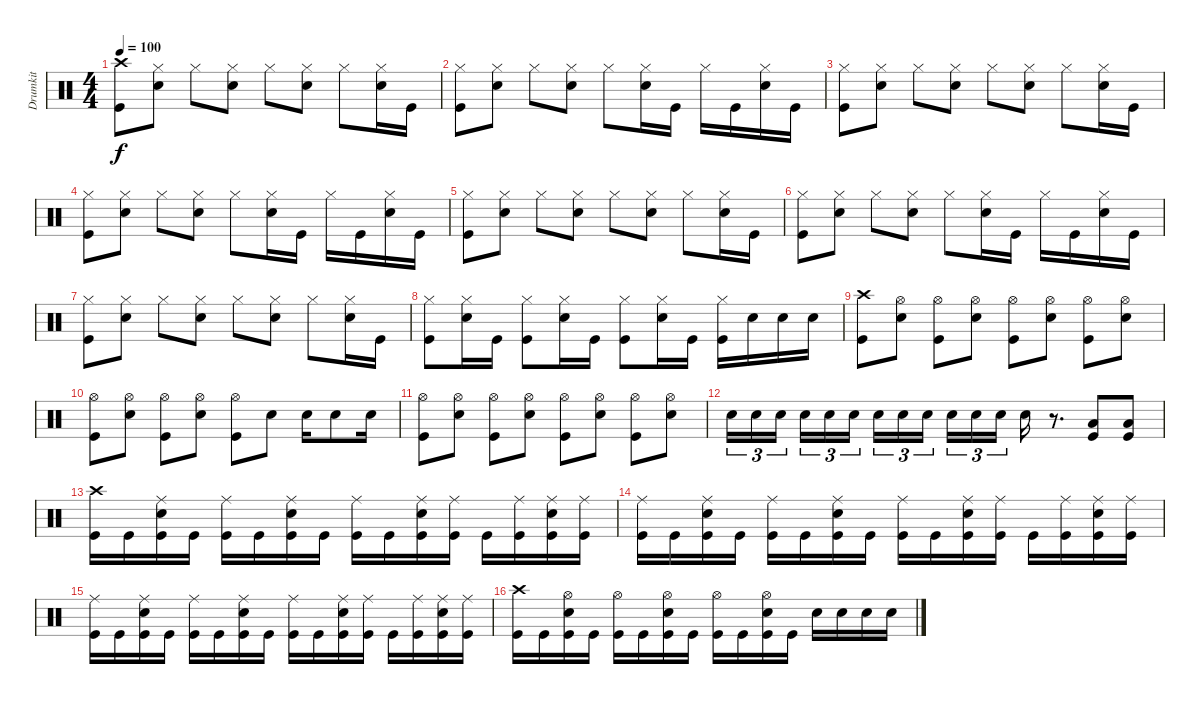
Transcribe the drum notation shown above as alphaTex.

\track ("Drumkit" "Drumkit") {instrument percussion}
\staff {score}
\articulation defaults
\ts (4 4)
\tempo 100
\clef neutral
\ks c
("Crash high (hit)" "Kick (hit)").8{dy f} ("Hi-Hat (closed)" "Snare (hit) 2").8 "Hi-Hat (closed)".8 ("Hi-Hat (closed)" "Snare (hit) 2").8 "Hi-Hat (closed)".8 ("Hi-Hat (closed)" "Snare (hit) 2").8 "Hi-Hat (closed)".8 ("Hi-Hat (closed)" "Snare (hit) 2").16 "Kick (hit)".16 |
("Hi-Hat (closed)" "Kick (hit)").8 ("Hi-Hat (closed)" "Snare (hit) 2").8 "Hi-Hat (closed)".8 ("Hi-Hat (closed)" "Snare (hit) 2").8 "Hi-Hat (closed)".8 ("Hi-Hat (closed)" "Snare (hit) 2").16 "Kick (hit)".16 "Hi-Hat (closed)".16 "Kick (hit)".16 ("Hi-Hat (closed)" "Snare (hit) 2").16 "Kick (hit)".16 |
("Hi-Hat (closed)" "Kick (hit)").8 ("Hi-Hat (closed)" "Snare (hit) 2").8 "Hi-Hat (closed)".8 ("Hi-Hat (closed)" "Snare (hit) 2").8 "Hi-Hat (closed)".8 ("Hi-Hat (closed)" "Snare (hit) 2").8 "Hi-Hat (closed)".8 ("Hi-Hat (closed)" "Snare (hit) 2").16 "Kick (hit)".16 |
("Hi-Hat (closed)" "Kick (hit)").8 ("Hi-Hat (closed)" "Snare (hit) 2").8 "Hi-Hat (closed)".8 ("Hi-Hat (closed)" "Snare (hit) 2").8 "Hi-Hat (closed)".8 ("Hi-Hat (closed)" "Snare (hit) 2").16 "Kick (hit)".16 "Hi-Hat (closed)".16 "Kick (hit)".16 ("Hi-Hat (closed)" "Snare (hit) 2").16 "Kick (hit)".16 |
("Hi-Hat (closed)" "Kick (hit)").8 ("Hi-Hat (closed)" "Snare (hit) 2").8 "Hi-Hat (closed)".8 ("Hi-Hat (closed)" "Snare (hit) 2").8 "Hi-Hat (closed)".8 ("Hi-Hat (closed)" "Snare (hit) 2").8 "Hi-Hat (closed)".8 ("Hi-Hat (closed)" "Snare (hit) 2").16 "Kick (hit)".16 |
("Hi-Hat (closed)" "Kick (hit)").8 ("Hi-Hat (closed)" "Snare (hit) 2").8 "Hi-Hat (closed)".8 ("Hi-Hat (closed)" "Snare (hit) 2").8 "Hi-Hat (closed)".8 ("Hi-Hat (closed)" "Snare (hit) 2").16 "Kick (hit)".16 "Hi-Hat (closed)".16 "Kick (hit)".16 ("Hi-Hat (closed)" "Snare (hit) 2").16 "Kick (hit)".16 |
("Hi-Hat (closed)" "Kick (hit)").8 ("Hi-Hat (closed)" "Snare (hit) 2").8 "Hi-Hat (closed)".8 ("Hi-Hat (closed)" "Snare (hit) 2").8 "Hi-Hat (closed)".8 ("Hi-Hat (closed)" "Snare (hit) 2").8 "Hi-Hat (closed)".8 ("Hi-Hat (closed)" "Snare (hit) 2").16 "Kick (hit)".16 |
("Hi-Hat (closed)" "Kick (hit)").8 ("Hi-Hat (closed)" "Snare (hit) 2").16 "Kick (hit)".16 ("Hi-Hat (closed)" "Kick (hit)").8 ("Hi-Hat (closed)" "Snare (hit) 2").16 "Kick (hit)".16 ("Hi-Hat (closed)" "Kick (hit)").8 ("Hi-Hat (closed)" "Snare (hit) 2").16 "Kick (hit)".16 ("Hi-Hat (closed)" "Kick (hit)").16 "Snare (hit) 2".16 "Snare (hit) 2".16 "Snare (hit) 2".16 |
("Crash high (hit)" "Kick (hit)").8 ("Hi-Hat (open)" "Snare (hit) 2").8 ("Hi-Hat (open)" "Kick (hit)").8 ("Hi-Hat (open)" "Snare (hit) 2").8 ("Hi-Hat (open)" "Kick (hit)").8 ("Hi-Hat (open)" "Snare (hit) 2").8 ("Hi-Hat (open)" "Kick (hit)").8 ("Hi-Hat (open)" "Snare (hit) 2").8 |
("Hi-Hat (open)" "Kick (hit)").8 ("Hi-Hat (open)" "Snare (hit) 2").8 ("Hi-Hat (open)" "Kick (hit)").8 ("Hi-Hat (open)" "Snare (hit) 2").8 ("Hi-Hat (open)" "Kick (hit)").8 "Snare (hit) 2".8 "Snare (hit) 2".16 "Snare (hit) 2".8 "Snare (hit) 2".16 |
("Hi-Hat (open)" "Kick (hit)").8 ("Hi-Hat (open)" "Snare (hit) 2").8 ("Hi-Hat (open)" "Kick (hit)").8 ("Hi-Hat (open)" "Snare (hit) 2").8 ("Hi-Hat (open)" "Kick (hit)").8 ("Hi-Hat (open)" "Snare (hit) 2").8 ("Hi-Hat (open)" "Kick (hit)").8 ("Hi-Hat (open)" "Snare (hit) 2").8 |
"Snare (hit) 2".16{tu (3 2)} "Snare (hit) 2".16{tu (3 2)} "Snare (hit) 2".16{tu (3 2)} "Snare (hit) 2".16{tu (3 2)} "Snare (hit) 2".16{tu (3 2)} "Snare (hit) 2".16{tu (3 2)} "Snare (hit) 2".16{tu (3 2)} "Snare (hit) 2".16{tu (3 2)} "Snare (hit) 2".16{tu (3 2)} "Snare (hit) 2".16{tu (3 2)} "Snare (hit) 2".16{tu (3 2)} "Snare (hit) 2".16{tu (3 2)} "Snare (hit) 2".16 r.8{d} ("Low Tom (hit)" "Kick (hit)").8 ("Low Floor Tom (hit)" "Kick (hit)").8 |
("Crash high (hit)" "Kick (hit)").16 "Kick (hit)".16 ("Ride (middle)" "Snare (hit) 2" "Kick (hit)").16 "Kick (hit)".16 ("Ride (middle)" "Kick (hit)").16 "Kick (hit)".16 ("Ride (middle)" "Snare (hit) 2" "Kick (hit)").16 "Kick (hit)".16 ("Ride (middle)" "Kick (hit)").16 "Kick (hit)".16 ("Ride (middle)" "Snare (hit) 2" "Kick (hit)").16 ("Ride (middle)" "Kick (hit)").16 "Kick (hit)".16 ("Ride (middle)" "Kick (hit)").16 ("Ride (middle)" "Snare (hit) 2" "Kick (hit)").16 ("Ride (middle)" "Kick (hit)").16 |
("Ride (middle)" "Kick (hit)").16 "Kick (hit)".16 ("Ride (middle)" "Snare (hit) 2" "Kick (hit)").16 "Kick (hit)".16 ("Ride (middle)" "Kick (hit)").16 "Kick (hit)".16 ("Ride (middle)" "Snare (hit) 2" "Kick (hit)").16 "Kick (hit)".16 ("Ride (middle)" "Kick (hit)").16 "Kick (hit)".16 ("Ride (middle)" "Snare (hit) 2" "Kick (hit)").16 ("Ride (middle)" "Kick (hit)").16 "Kick (hit)".16 ("Ride (middle)" "Kick (hit)").16 ("Ride (middle)" "Snare (hit) 2" "Kick (hit)").16 ("Ride (middle)" "Kick (hit)").16 |
("Ride (middle)" "Kick (hit)").16 "Kick (hit)".16 ("Ride (middle)" "Snare (hit) 2" "Kick (hit)").16 "Kick (hit)".16 ("Ride (middle)" "Kick (hit)").16 "Kick (hit)".16 ("Ride (middle)" "Snare (hit) 2" "Kick (hit)").16 "Kick (hit)".16 ("Ride (middle)" "Kick (hit)").16 "Kick (hit)".16 ("Ride (middle)" "Snare (hit) 2" "Kick (hit)").16 ("Ride (middle)" "Kick (hit)").16 "Kick (hit)".16 ("Ride (middle)" "Kick (hit)").16 ("Ride (middle)" "Snare (hit) 2" "Kick (hit)").16 ("Ride (middle)" "Kick (hit)").16 |
("Crash high (hit)" "Kick (hit)").16 "Kick (hit)".16 ("Hi-Hat (open)" "Snare (hit) 2" "Kick (hit)").16 "Kick (hit)".16 ("Hi-Hat (open)" "Kick (hit)").16 "Kick (hit)".16 ("Hi-Hat (open)" "Snare (hit) 2" "Kick (hit)").16 "Kick (hit)".16 ("Hi-Hat (open)" "Kick (hit)").16 "Kick (hit)".16 ("Hi-Hat (open)" "Snare (hit) 2" "Kick (hit)").16 "Kick (hit)".16 "Snare (hit) 2".16 "Snare (hit) 2".16 "Snare (hit) 2".16 "Snare (hit) 2".16
